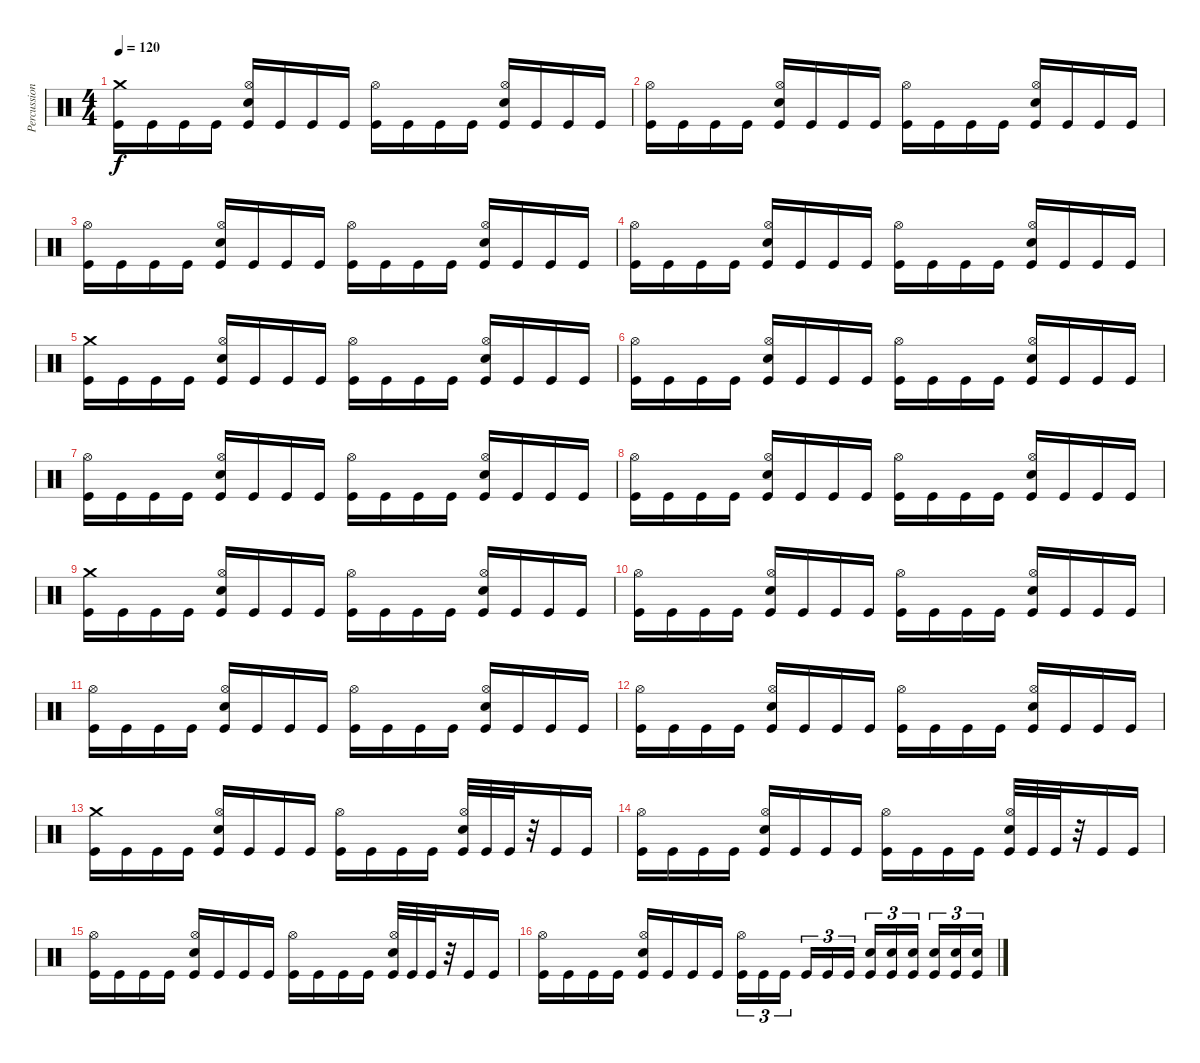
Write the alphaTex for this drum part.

\track ("Percussion" "Percussion") {instrument percussion}
\staff {score}
\articulation defaults
\ts (4 4)
\tempo 120
\clef neutral
\ks c
("Crash medium (hit)" "Kick (hit)").16{dy f} "Kick (hit)".16 "Kick (hit)".16 "Kick (hit)".16 ("Hi-Hat (open)" "Electric Snare (hit)" "Kick (hit)").16 "Kick (hit)".16 "Kick (hit)".16 "Kick (hit)".16 ("Hi-Hat (open)" "Kick (hit)").16 "Kick (hit)".16 "Kick (hit)".16 "Kick (hit)".16 ("Hi-Hat (open)" "Electric Snare (hit)" "Kick (hit)").16 "Kick (hit)".16 "Kick (hit)".16 "Kick (hit)".16 |
("Hi-Hat (open)" "Kick (hit)").16 "Kick (hit)".16 "Kick (hit)".16 "Kick (hit)".16 ("Hi-Hat (open)" "Electric Snare (hit)" "Kick (hit)").16 "Kick (hit)".16 "Kick (hit)".16 "Kick (hit)".16 ("Hi-Hat (open)" "Kick (hit)").16 "Kick (hit)".16 "Kick (hit)".16 "Kick (hit)".16 ("Hi-Hat (open)" "Electric Snare (hit)" "Kick (hit)").16 "Kick (hit)".16 "Kick (hit)".16 "Kick (hit)".16 |
("Hi-Hat (open)" "Kick (hit)").16 "Kick (hit)".16 "Kick (hit)".16 "Kick (hit)".16 ("Hi-Hat (open)" "Electric Snare (hit)" "Kick (hit)").16 "Kick (hit)".16 "Kick (hit)".16 "Kick (hit)".16 ("Hi-Hat (open)" "Kick (hit)").16 "Kick (hit)".16 "Kick (hit)".16 "Kick (hit)".16 ("Hi-Hat (open)" "Electric Snare (hit)" "Kick (hit)").16 "Kick (hit)".16 "Kick (hit)".16 "Kick (hit)".16 |
("Hi-Hat (open)" "Kick (hit)").16 "Kick (hit)".16 "Kick (hit)".16 "Kick (hit)".16 ("Hi-Hat (open)" "Electric Snare (hit)" "Kick (hit)").16 "Kick (hit)".16 "Kick (hit)".16 "Kick (hit)".16 ("Hi-Hat (open)" "Kick (hit)").16 "Kick (hit)".16 "Kick (hit)".16 "Kick (hit)".16 ("Hi-Hat (open)" "Electric Snare (hit)" "Kick (hit)").16 "Kick (hit)".16 "Kick (hit)".16 "Kick (hit)".16 |
("Crash medium (hit)" "Kick (hit)").16 "Kick (hit)".16 "Kick (hit)".16 "Kick (hit)".16 ("Hi-Hat (open)" "Electric Snare (hit)" "Kick (hit)").16 "Kick (hit)".16 "Kick (hit)".16 "Kick (hit)".16 ("Hi-Hat (open)" "Kick (hit)").16 "Kick (hit)".16 "Kick (hit)".16 "Kick (hit)".16 ("Hi-Hat (open)" "Electric Snare (hit)" "Kick (hit)").16 "Kick (hit)".16 "Kick (hit)".16 "Kick (hit)".16 |
("Hi-Hat (open)" "Kick (hit)").16 "Kick (hit)".16 "Kick (hit)".16 "Kick (hit)".16 ("Hi-Hat (open)" "Electric Snare (hit)" "Kick (hit)").16 "Kick (hit)".16 "Kick (hit)".16 "Kick (hit)".16 ("Hi-Hat (open)" "Kick (hit)").16 "Kick (hit)".16 "Kick (hit)".16 "Kick (hit)".16 ("Hi-Hat (open)" "Electric Snare (hit)" "Kick (hit)").16 "Kick (hit)".16 "Kick (hit)".16 "Kick (hit)".16 |
("Hi-Hat (open)" "Kick (hit)").16 "Kick (hit)".16 "Kick (hit)".16 "Kick (hit)".16 ("Hi-Hat (open)" "Electric Snare (hit)" "Kick (hit)").16 "Kick (hit)".16 "Kick (hit)".16 "Kick (hit)".16 ("Hi-Hat (open)" "Kick (hit)").16 "Kick (hit)".16 "Kick (hit)".16 "Kick (hit)".16 ("Hi-Hat (open)" "Electric Snare (hit)" "Kick (hit)").16 "Kick (hit)".16 "Kick (hit)".16 "Kick (hit)".16 |
("Hi-Hat (open)" "Kick (hit)").16 "Kick (hit)".16 "Kick (hit)".16 "Kick (hit)".16 ("Hi-Hat (open)" "Electric Snare (hit)" "Kick (hit)").16 "Kick (hit)".16 "Kick (hit)".16 "Kick (hit)".16 ("Hi-Hat (open)" "Kick (hit)").16 "Kick (hit)".16 "Kick (hit)".16 "Kick (hit)".16 ("Hi-Hat (open)" "Electric Snare (hit)" "Kick (hit)").16 "Kick (hit)".16 "Kick (hit)".16 "Kick (hit)".16 |
("Crash medium (hit)" "Kick (hit)").16 "Kick (hit)".16 "Kick (hit)".16 "Kick (hit)".16 ("Hi-Hat (open)" "Electric Snare (hit)" "Kick (hit)").16 "Kick (hit)".16 "Kick (hit)".16 "Kick (hit)".16 ("Hi-Hat (open)" "Kick (hit)").16 "Kick (hit)".16 "Kick (hit)".16 "Kick (hit)".16 ("Hi-Hat (open)" "Electric Snare (hit)" "Kick (hit)").16 "Kick (hit)".16 "Kick (hit)".16 "Kick (hit)".16 |
("Hi-Hat (open)" "Kick (hit)").16 "Kick (hit)".16 "Kick (hit)".16 "Kick (hit)".16 ("Hi-Hat (open)" "Electric Snare (hit)" "Kick (hit)").16 "Kick (hit)".16 "Kick (hit)".16 "Kick (hit)".16 ("Hi-Hat (open)" "Kick (hit)").16 "Kick (hit)".16 "Kick (hit)".16 "Kick (hit)".16 ("Hi-Hat (open)" "Electric Snare (hit)" "Kick (hit)").16 "Kick (hit)".16 "Kick (hit)".16 "Kick (hit)".16 |
("Hi-Hat (open)" "Kick (hit)").16 "Kick (hit)".16 "Kick (hit)".16 "Kick (hit)".16 ("Hi-Hat (open)" "Electric Snare (hit)" "Kick (hit)").16 "Kick (hit)".16 "Kick (hit)".16 "Kick (hit)".16 ("Hi-Hat (open)" "Kick (hit)").16 "Kick (hit)".16 "Kick (hit)".16 "Kick (hit)".16 ("Hi-Hat (open)" "Electric Snare (hit)" "Kick (hit)").16 "Kick (hit)".16 "Kick (hit)".16 "Kick (hit)".16 |
("Hi-Hat (open)" "Kick (hit)").16 "Kick (hit)".16 "Kick (hit)".16 "Kick (hit)".16 ("Hi-Hat (open)" "Electric Snare (hit)" "Kick (hit)").16 "Kick (hit)".16 "Kick (hit)".16 "Kick (hit)".16 ("Hi-Hat (open)" "Kick (hit)").16 "Kick (hit)".16 "Kick (hit)".16 "Kick (hit)".16 ("Hi-Hat (open)" "Electric Snare (hit)" "Kick (hit)").16 "Kick (hit)".16 "Kick (hit)".16 "Kick (hit)".16 |
("Crash medium (hit)" "Kick (hit)").16 "Kick (hit)".16 "Kick (hit)".16 "Kick (hit)".16 ("Hi-Hat (open)" "Electric Snare (hit)" "Kick (hit)").16 "Kick (hit)".16 "Kick (hit)".16 "Kick (hit)".16 ("Hi-Hat (open)" "Kick (hit)").16 "Kick (hit)".16 "Kick (hit)".16 "Kick (hit)".16 ("Hi-Hat (open)" "Electric Snare (hit)" "Kick (hit)").32 "Kick (hit)".32 "Kick (hit)".32 r.32 "Kick (hit)".16 "Kick (hit)".16 |
("Hi-Hat (open)" "Kick (hit)").16 "Kick (hit)".16 "Kick (hit)".16 "Kick (hit)".16 ("Hi-Hat (open)" "Electric Snare (hit)" "Kick (hit)").16 "Kick (hit)".16 "Kick (hit)".16 "Kick (hit)".16 ("Hi-Hat (open)" "Kick (hit)").16 "Kick (hit)".16 "Kick (hit)".16 "Kick (hit)".16 ("Hi-Hat (open)" "Electric Snare (hit)" "Kick (hit)").32 "Kick (hit)".32 "Kick (hit)".32 r.32 "Kick (hit)".16 "Kick (hit)".16 |
("Hi-Hat (open)" "Kick (hit)").16 "Kick (hit)".16 "Kick (hit)".16 "Kick (hit)".16 ("Hi-Hat (open)" "Electric Snare (hit)" "Kick (hit)").16 "Kick (hit)".16 "Kick (hit)".16 "Kick (hit)".16 ("Hi-Hat (open)" "Kick (hit)").16 "Kick (hit)".16 "Kick (hit)".16 "Kick (hit)".16 ("Hi-Hat (open)" "Electric Snare (hit)" "Kick (hit)").32 "Kick (hit)".32 "Kick (hit)".32 r.32 "Kick (hit)".16 "Kick (hit)".16 |
("Hi-Hat (open)" "Kick (hit)").16 "Kick (hit)".16 "Kick (hit)".16 "Kick (hit)".16 ("Hi-Hat (open)" "Electric Snare (hit)" "Kick (hit)").16 "Kick (hit)".16 "Kick (hit)".16 "Kick (hit)".16 ("Hi-Hat (open)" "Kick (hit)").16{tu (3 2)} "Kick (hit)".16{tu (3 2)} "Kick (hit)".16{tu (3 2)} "Kick (hit)".16{tu (3 2)} "Kick (hit)".16{tu (3 2)} "Kick (hit)".16{tu (3 2)} ("Electric Snare (hit)" "Kick (hit)").16{tu (3 2)} ("Electric Snare (hit)" "Kick (hit)").16{tu (3 2)} ("Electric Snare (hit)" "Kick (hit)").16{tu (3 2)} ("Electric Snare (hit)" "Kick (hit)").16{tu (3 2)} ("Electric Snare (hit)" "Kick (hit)").16{tu (3 2)} ("Electric Snare (hit)" "Kick (hit)").16{tu (3 2)}
